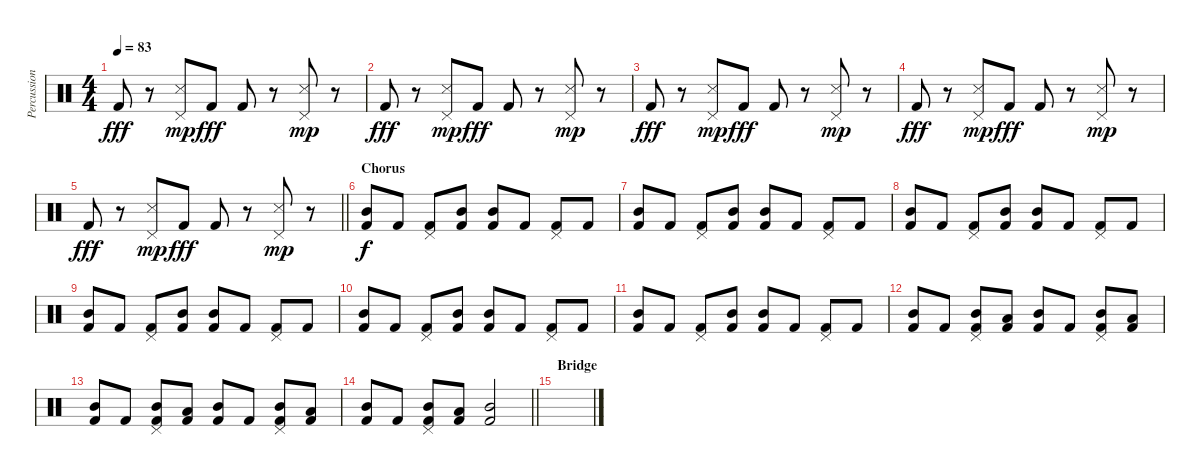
\track ("Percussion" "Percussion") {instrument percussion}
\staff {score}
\articulation defaults
\ts (4 4)
\tempo 83
\clef neutral
\ks c "Kick (hit) 2".8{dy fff}
r.8 ("Snare (side stick) 3" "Pedal Hi-Hat (hit)").8{dy mp} "Kick (hit) 2".8{dy fff} "Kick (hit) 2".8 r.8 ("Snare (side stick) 3" "Pedal Hi-Hat (hit)").8{dy mp} r.8 |
"Kick (hit) 2".8{dy fff} r.8 ("Snare (side stick) 3" "Pedal Hi-Hat (hit)").8{dy mp} "Kick (hit) 2".8{dy fff} "Kick (hit) 2".8 r.8 ("Snare (side stick) 3" "Pedal Hi-Hat (hit)").8{dy mp} r.8 |
"Kick (hit) 2".8{dy fff} r.8 ("Snare (side stick) 3" "Pedal Hi-Hat (hit)").8{dy mp} "Kick (hit) 2".8{dy fff} "Kick (hit) 2".8 r.8 ("Snare (side stick) 3" "Pedal Hi-Hat (hit)").8{dy mp} r.8 |
"Kick (hit) 2".8{dy fff} r.8 ("Snare (side stick) 3" "Pedal Hi-Hat (hit)").8{dy mp} "Kick (hit) 2".8{dy fff} "Kick (hit) 2".8 r.8 ("Snare (side stick) 3" "Pedal Hi-Hat (hit)").8{dy mp} r.8 |
\barLineRight lightlight "Kick (hit) 2".8{dy fff}
r.8 ("Snare (side stick) 3" "Pedal Hi-Hat (hit)").8{dy mp} "Kick (hit) 2".8{dy fff} "Kick (hit) 2".8 r.8 ("Snare (side stick) 3" "Pedal Hi-Hat (hit)").8{dy mp} r.8 |
\section ("" "Chorus")
("Kick (hit) 2" "Mid Tom (hit)").8{dy f} "Kick (hit) 2".8 ("Kick (hit) 2" "Pedal Hi-Hat (hit)").8 ("Kick (hit) 2" "Mid Tom (hit)").8 ("Kick (hit) 2" "Mid Tom (hit)").8 "Kick (hit) 2".8 ("Kick (hit) 2" "Pedal Hi-Hat (hit)").8 "Kick (hit) 2".8 |
("Kick (hit) 2" "Mid Tom (hit)").8 "Kick (hit) 2".8 ("Kick (hit) 2" "Pedal Hi-Hat (hit)").8 ("Kick (hit) 2" "Mid Tom (hit)").8 ("Kick (hit) 2" "Mid Tom (hit)").8 "Kick (hit) 2".8 ("Kick (hit) 2" "Pedal Hi-Hat (hit)").8 "Kick (hit) 2".8 |
("Kick (hit) 2" "Mid Tom (hit)").8 "Kick (hit) 2".8 ("Kick (hit) 2" "Pedal Hi-Hat (hit)").8 ("Kick (hit) 2" "Mid Tom (hit)").8 ("Kick (hit) 2" "Mid Tom (hit)").8 "Kick (hit) 2".8 ("Kick (hit) 2" "Pedal Hi-Hat (hit)").8 "Kick (hit) 2".8 |
("Kick (hit) 2" "Mid Tom (hit)").8 "Kick (hit) 2".8 ("Kick (hit) 2" "Pedal Hi-Hat (hit)").8 ("Kick (hit) 2" "Mid Tom (hit)").8 ("Kick (hit) 2" "Mid Tom (hit)").8 "Kick (hit) 2".8 ("Kick (hit) 2" "Pedal Hi-Hat (hit)").8 "Kick (hit) 2".8 |
("Kick (hit) 2" "Mid Tom (hit)").8 "Kick (hit) 2".8 ("Kick (hit) 2" "Pedal Hi-Hat (hit)").8 ("Kick (hit) 2" "Mid Tom (hit)").8 ("Kick (hit) 2" "Mid Tom (hit)").8 "Kick (hit) 2".8 ("Kick (hit) 2" "Pedal Hi-Hat (hit)").8 "Kick (hit) 2".8 |
("Kick (hit) 2" "Mid Tom (hit)").8 "Kick (hit) 2".8 ("Kick (hit) 2" "Pedal Hi-Hat (hit)").8 ("Kick (hit) 2" "Mid Tom (hit)").8 ("Kick (hit) 2" "Mid Tom (hit)").8 "Kick (hit) 2".8 ("Kick (hit) 2" "Pedal Hi-Hat (hit)").8 "Kick (hit) 2".8 |
("Kick (hit) 2" "Mid Tom (hit)").8 "Kick (hit) 2".8 ("Kick (hit) 2" "Pedal Hi-Hat (hit)" "Mid Tom (hit)").8 ("Kick (hit) 2" "Low Tom (hit)").8 ("Kick (hit) 2" "Mid Tom (hit)").8 "Kick (hit) 2".8 ("Kick (hit) 2" "Pedal Hi-Hat (hit)" "Mid Tom (hit)").8 ("Kick (hit) 2" "Low Tom (hit)").8 |
("Kick (hit) 2" "Mid Tom (hit)").8 "Kick (hit) 2".8 ("Kick (hit) 2" "Pedal Hi-Hat (hit)" "Mid Tom (hit)").8 ("Kick (hit) 2" "Low Tom (hit)").8 ("Kick (hit) 2" "Mid Tom (hit)").8 "Kick (hit) 2".8 ("Kick (hit) 2" "Pedal Hi-Hat (hit)" "Mid Tom (hit)").8 ("Kick (hit) 2" "Low Tom (hit)").8 |
\barLineRight lightlight
("Kick (hit) 2" "Mid Tom (hit)").8 "Kick (hit) 2".8 ("Kick (hit) 2" "Pedal Hi-Hat (hit)" "Mid Tom (hit)").8 ("Kick (hit) 2" "Low Tom (hit)").8 ("Kick (hit) 2" "Mid Tom (hit)").2 |
\section ("" "Bridge")
